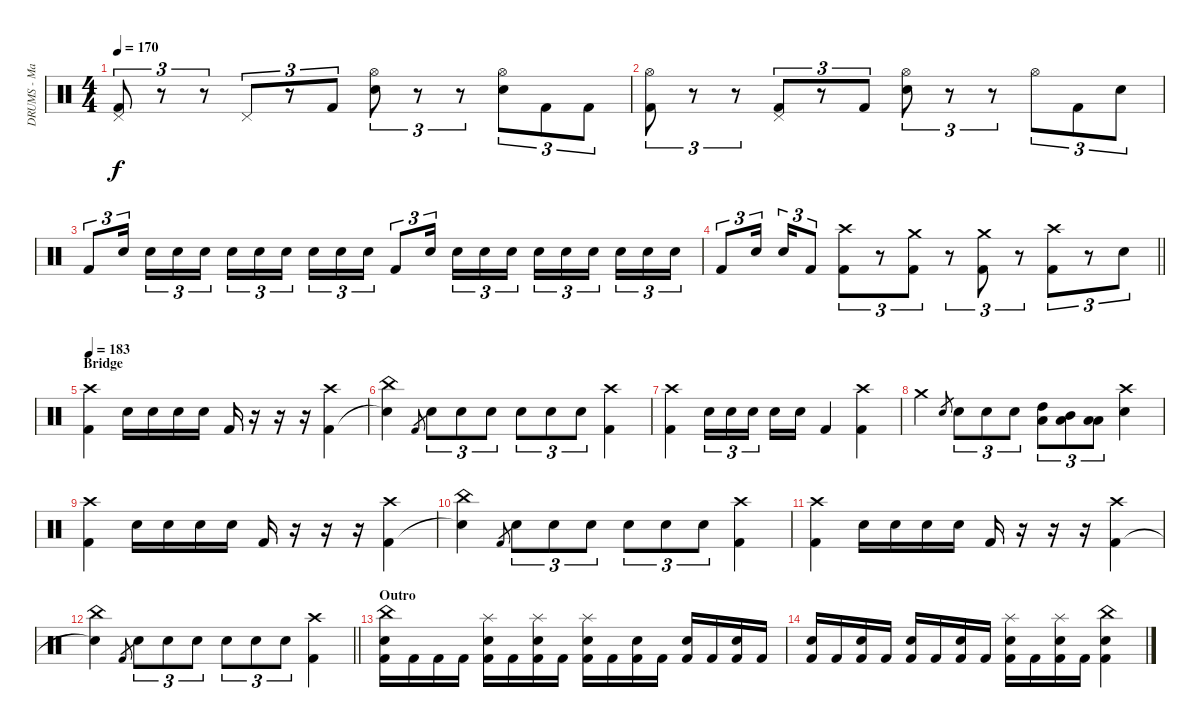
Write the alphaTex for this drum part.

\track ("DRUMS - Mario Duplantier" "DRUMS - Ma") {instrument percussion}
\staff {score}
\articulation defaults
\ts (4 4)
\tempo 170
\clef neutral
\ks c
("Pedal Hi-Hat (hit)" "Kick (hit) 2").8{tu (3 2) dy f} r.8{tu (3 2)} r.8{tu (3 2)} "Pedal Hi-Hat (hit)".8{tu (3 2)} r.8{tu (3 2)} "Kick (hit) 2".8{tu (3 2)} ("Hi-Hat (open)" "Electric Snare (hit)").8{tu (3 2)} r.8{tu (3 2)} r.8{tu (3 2)} ("Hi-Hat (open)" "Electric Snare (hit)").8{tu (3 2)} "Kick (hit) 2".8{tu (3 2)} "Kick (hit) 2".8{tu (3 2)} |
("Hi-Hat (open)" "Kick (hit) 2").8{tu (3 2)} r.8{tu (3 2)} r.8{tu (3 2)} ("Pedal Hi-Hat (hit)" "Kick (hit) 2").8{tu (3 2)} r.8{tu (3 2)} "Kick (hit) 2".8{tu (3 2)} ("Hi-Hat (open)" "Electric Snare (hit)").8{tu (3 2)} r.8{tu (3 2)} r.8{tu (3 2)} "Hi-Hat (open)".8{tu (3 2)} "Kick (hit) 2".8{tu (3 2)} "Electric Snare (hit)".8{tu (3 2)} |
"Kick (hit) 2".8{tu (3 2)} "Electric Snare (hit)".16{tu (3 2) beam splitsecondary} "Electric Snare (hit)".16{tu (3 2)} "Electric Snare (hit)".16{tu (3 2)} "Electric Snare (hit)".16{tu (3 2)} "Electric Snare (hit)".16{tu (3 2)} "Electric Snare (hit)".16{tu (3 2)} "Electric Snare (hit)".16{tu (3 2) beam splitsecondary} "Electric Snare (hit)".16{tu (3 2)} "Electric Snare (hit)".16{tu (3 2)} "Electric Snare (hit)".16{tu (3 2)} "Kick (hit) 2".8{tu (3 2)} "Electric Snare (hit)".16{tu (3 2) beam splitsecondary} "Electric Snare (hit)".16{tu (3 2)} "Electric Snare (hit)".16{tu (3 2)} "Electric Snare (hit)".16{tu (3 2)} "Electric Snare (hit)".16{tu (3 2)} "Electric Snare (hit)".16{tu (3 2)} "Electric Snare (hit)".16{tu (3 2) beam splitsecondary} "Electric Snare (hit)".16{tu (3 2)} "Electric Snare (hit)".16{tu (3 2)} "Electric Snare (hit)".16{tu (3 2)} |
\barLineRight lightlight "Kick (hit) 2".8{tu (3 2)} "Electric Snare (hit)".16{tu (3 2) beam splitsecondary} "Electric Snare (hit)".16{tu (3 2)} "Kick (hit) 2".8{tu (3 2)}
("Crash high (hit)" "Kick (hit) 2").8{tu (3 2)} r.8{tu (3 2)} ("Crash medium (hit)" "Kick (hit) 2").8{tu (3 2)} r.8{tu (3 2)} ("Crash medium (hit)" "Kick (hit) 2").8{tu (3 2)} r.8{tu (3 2)} ("Crash high (hit)" "Kick (hit) 2").8{tu (3 2)} r.8{tu (3 2)} "Electric Snare (hit)".8{tu (3 2)} |
\section ("" "Bridge")
\tempo 183
("Crash high (hit)" "Kick (hit) 2").4 "Electric Snare (hit)".16 "Electric Snare (hit)".16 "Electric Snare (hit)".16 "Electric Snare (hit)".16 "Kick (hit) 2".16 r.16 r.16 r.16 ("Crash high (hit)" "Kick (hit) 2").4 |
("China (hit)" "Snare (hit)"{t}).4 "Kick (hit) 2".8{gr} "Electric Snare (hit)".8{tu (3 2)} "Electric Snare (hit)".8{tu (3 2)} "Electric Snare (hit)".8{tu (3 2)} "Electric Snare (hit)".8{tu (3 2)} "Electric Snare (hit)".8{tu (3 2)} "Electric Snare (hit)".8{tu (3 2)} ("Crash high (hit)" "Kick (hit) 2").4 |
("Crash high (hit)" "Kick (hit) 2").4 "Electric Snare (hit)".16{tu (3 2)} "Electric Snare (hit)".16{tu (3 2)} "Electric Snare (hit)".16{tu (3 2) beam splitsecondary} "Electric Snare (hit)".16 "Electric Snare (hit)".16 "Kick (hit) 2".4 ("Crash high (hit)" "Kick (hit) 2").4 |
"Crash medium (hit)".4 "Electric Snare (hit)".8{gr} "Electric Snare (hit)".8{tu (3 2)} "Electric Snare (hit)".8{tu (3 2)} "Electric Snare (hit)".8{tu (3 2)} ("High Tom (hit)" "Low Floor Tom (hit)").8{tu (3 2)} ("Mid Tom (hit)" "Low Floor Tom (hit)").8{tu (3 2)} ("Low Tom (hit)" "Low Floor Tom (hit)").8{tu (3 2)} ("Crash high (hit)" "Electric Snare (hit)").4 |
("Crash high (hit)" "Kick (hit) 2").4 "Electric Snare (hit)".16 "Electric Snare (hit)".16 "Electric Snare (hit)".16 "Electric Snare (hit)".16 "Kick (hit) 2".16 r.16 r.16 r.16 ("Crash high (hit)" "Kick (hit) 2").4 |
("China (hit)" "Snare (hit)"{t}).4 "Kick (hit) 2".8{gr} "Electric Snare (hit)".8{tu (3 2)} "Electric Snare (hit)".8{tu (3 2)} "Electric Snare (hit)".8{tu (3 2)} "Electric Snare (hit)".8{tu (3 2)} "Electric Snare (hit)".8{tu (3 2)} "Electric Snare (hit)".8{tu (3 2)} ("Crash high (hit)" "Kick (hit) 2").4 |
("Crash high (hit)" "Kick (hit) 2").4 "Electric Snare (hit)".16 "Electric Snare (hit)".16 "Electric Snare (hit)".16 "Electric Snare (hit)".16 "Kick (hit) 2".16 r.16 r.16 r.16 ("Crash high (hit)" "Kick (hit) 2").4 |
\barLineRight lightlight
("China (hit)" "Snare (hit)"{t}).4 "Kick (hit) 2".8{gr} "Electric Snare (hit)".8{tu (3 2)} "Electric Snare (hit)".8{tu (3 2)} "Electric Snare (hit)".8{tu (3 2)} "Electric Snare (hit)".8{tu (3 2)} "Electric Snare (hit)".8{tu (3 2)} "Electric Snare (hit)".8{tu (3 2)} ("Crash high (hit)" "Kick (hit) 2").4 |
\section ("" "Outro")
("China (hit)" "Electric Snare (hit)" "Kick (hit) 2").16 "Kick (hit) 2".16 "Kick (hit) 2".16 "Kick (hit) 2".16 ("Splash (hit)" "Electric Snare (hit)" "Kick (hit) 2").16 "Kick (hit) 2".16 ("Splash (hit)" "Electric Snare (hit)" "Kick (hit) 2").16 "Kick (hit) 2".16 ("Splash (hit)" "Electric Snare (hit)" "Kick (hit) 2").16 "Kick (hit) 2".16 ("Electric Snare (hit)" "Kick (hit) 2").16 "Kick (hit) 2".16 ("Electric Snare (hit)" "Kick (hit) 2").16 "Kick (hit) 2".16 ("Electric Snare (hit)" "Kick (hit) 2").16 "Kick (hit) 2".16 |
("Electric Snare (hit)" "Kick (hit) 2").16 "Kick (hit) 2".16 ("Electric Snare (hit)" "Kick (hit) 2").16 "Kick (hit) 2".16 ("Electric Snare (hit)" "Kick (hit) 2").16 "Kick (hit) 2".16 ("Electric Snare (hit)" "Kick (hit) 2").16 "Kick (hit) 2".16 ("Splash (hit)" "Electric Snare (hit)" "Kick (hit) 2").16 "Kick (hit) 2".16 ("Splash (hit)" "Electric Snare (hit)" "Kick (hit) 2").16 "Kick (hit) 2".16 ("China (hit)" "Electric Snare (hit)" "Kick (hit) 2").4
